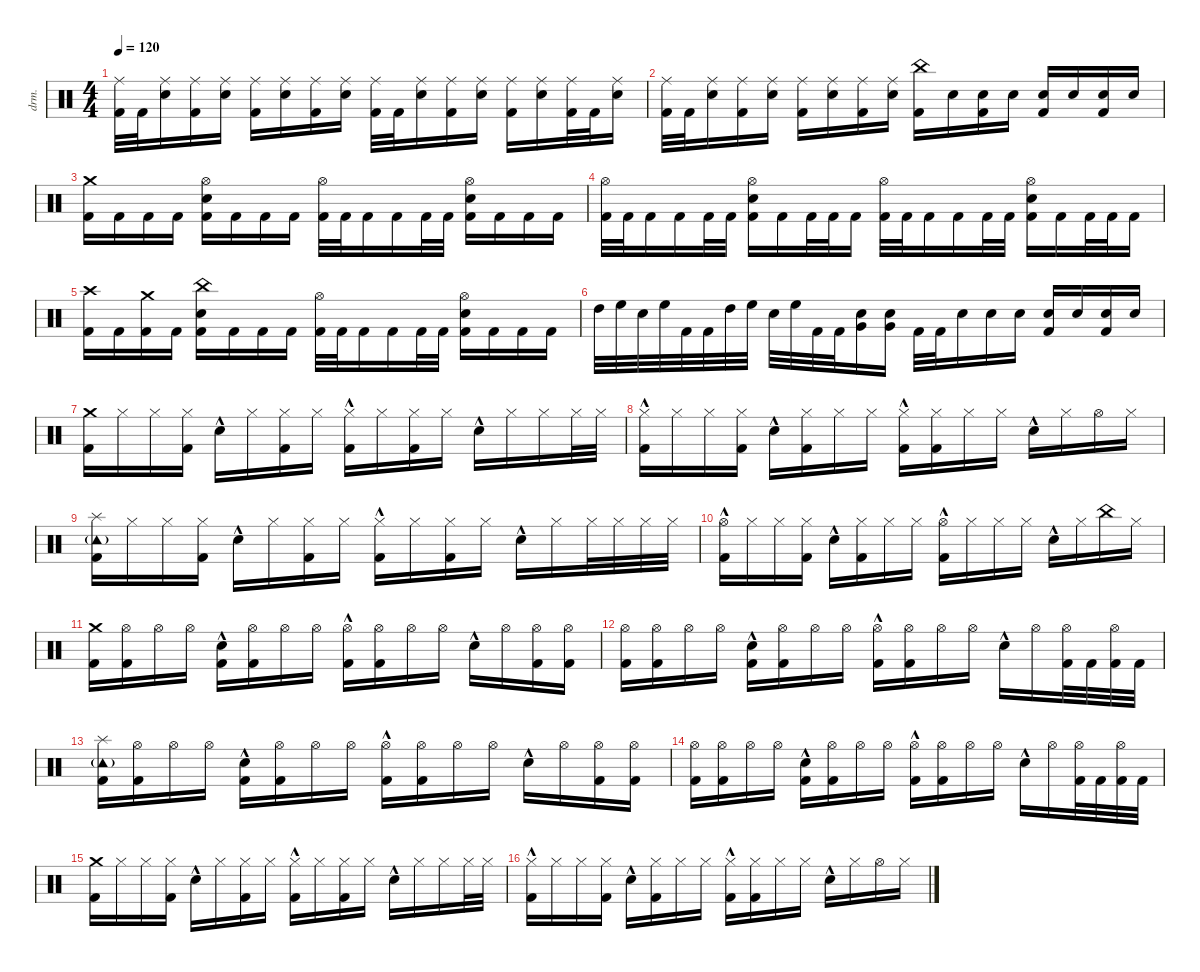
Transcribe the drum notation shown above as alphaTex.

\defaultSystemsLayout 4
\hideDynamics
\bracketExtendMode nobrackets
\otherSystemsTrackNameOrientation horizontal
\track ("Percussion" "drm.") {instrument percussion}
\staff {score}
\articulation defaults
\ts (4 4)
\tempo 120
\clef neutral
\ks c
("Kick (hit) 2" "Ride (middle)").32{dy fff beam Down} "Kick (hit) 2".32{beam Down} ("Snare (hit) 2" "Ride (middle)").16{beam Down} ("Kick (hit) 2" "Ride (middle)").16{beam Down} ("Snare (hit) 2" "Ride (middle)").16{beam Down} ("Kick (hit) 2" "Ride (middle)").16{beam Down} ("Snare (hit) 2" "Ride (middle)").16{beam Down} ("Kick (hit) 2" "Ride (middle)").16{beam Down} ("Snare (hit) 2" "Ride (middle)").16{beam Down} ("Kick (hit) 2" "Ride (middle)").32{beam Down} "Kick (hit) 2".32{beam Down} ("Snare (hit) 2" "Ride (middle)").16{beam Down} ("Kick (hit) 2" "Ride (middle)").16{beam Down} ("Snare (hit) 2" "Ride (middle)").16{beam Down} ("Kick (hit) 2" "Ride (middle)").16{beam Down} ("Snare (hit) 2" "Ride (middle)").16{beam Down} ("Kick (hit) 2" "Ride (middle)").32{beam Down} "Kick (hit) 2".32{beam Down} ("Snare (hit) 2" "Ride (middle)").16{beam Down} |
("Kick (hit) 2" "Ride (middle)").32{beam Down} "Kick (hit) 2".32{beam Down} ("Snare (hit) 2" "Ride (middle)").16{beam Down} ("Kick (hit) 2" "Ride (middle)").16{beam Down} ("Snare (hit) 2" "Ride (middle)").16{beam Down} ("Kick (hit) 2" "Ride (middle)").16{beam Down} ("Snare (hit) 2" "Ride (middle)").16{beam Down} ("Kick (hit) 2" "Ride (middle)").16{beam Down} ("Snare (hit) 2" "Ride (middle)").16{beam Down} ("Kick (hit) 2" "China (hit)").16{beam Down} "Snare (hit) 2".16{beam Down} ("Kick (hit) 2" "Snare (hit) 2").16{beam Down} "Snare (hit) 2".16{dy f beam Down} ("Kick (hit) 2" "Snare (hit) 2").16{dy fff beam Up} "Snare (hit) 2".16{dy ff beam Up} ("Kick (hit) 2" "Snare (hit) 2").16{dy fff beam Up} "Snare (hit) 2".16{beam Up} |
("Kick (hit) 2" "Crash medium (hit)").16{beam Down} "Kick (hit) 2".16{beam Down} "Kick (hit) 2".16{beam Down} "Kick (hit) 2".16{beam Down} ("Kick (hit) 2" "Snare (hit) 2" "Hi-Hat (open)").16{beam Down} "Kick (hit) 2".16{beam Down} "Kick (hit) 2".16{beam Down} "Kick (hit) 2".16{beam Down} ("Kick (hit) 2" "Hi-Hat (open)").32{beam Down} "Kick (hit) 2".32{beam Down} "Kick (hit) 2".16{beam Down} "Kick (hit) 2".16{beam Down} "Kick (hit) 2".32{beam Down} "Kick (hit) 2".32{beam Down} ("Kick (hit) 2" "Snare (hit) 2" "Hi-Hat (open)").16{beam Down} "Kick (hit) 2".16{beam Down} "Kick (hit) 2".16{beam Down} "Kick (hit) 2".16{beam Down} |
("Kick (hit) 2" "Hi-Hat (open)").32{beam Down} "Kick (hit) 2".32{beam Down} "Kick (hit) 2".16{beam Down} "Kick (hit) 2".16{beam Down} "Kick (hit) 2".32{beam Down} "Kick (hit) 2".32{beam Down} ("Kick (hit) 2" "Snare (hit) 2" "Hi-Hat (open)").16{beam Down} "Kick (hit) 2".16{beam Down} "Kick (hit) 2".32{beam Down} "Kick (hit) 2".32{beam Down} "Kick (hit) 2".16{beam Down} ("Kick (hit) 2" "Hi-Hat (open)").32{beam Down} "Kick (hit) 2".32{beam Down} "Kick (hit) 2".16{beam Down} "Kick (hit) 2".16{beam Down} "Kick (hit) 2".32{beam Down} "Kick (hit) 2".32{beam Down} ("Kick (hit) 2" "Snare (hit) 2" "Hi-Hat (open)").16{beam Down} "Kick (hit) 2".16{beam Down} "Kick (hit) 2".32{beam Down} "Kick (hit) 2".32{beam Down} "Kick (hit) 2".16{beam Down} |
("Kick (hit) 2" "Crash high (hit)").16{beam Down} "Kick (hit) 2".16{beam Down} ("Kick (hit) 2" "Crash medium (hit)").16{beam Down} "Kick (hit) 2".16{beam Down} ("Kick (hit) 2" "Snare (hit) 2" "China (hit)").16{beam Down} "Kick (hit) 2".16{beam Down} "Kick (hit) 2".16{beam Down} "Kick (hit) 2".16{beam Down} ("Kick (hit) 2" "Hi-Hat (open)").32{beam Down} "Kick (hit) 2".32{beam Down} "Kick (hit) 2".16{beam Down} "Kick (hit) 2".16{beam Down} "Kick (hit) 2".32{beam Down} "Kick (hit) 2".32{beam Down} ("Kick (hit) 2" "Snare (hit) 2" "Hi-Hat (open)").16{beam Down} "Kick (hit) 2".16{beam Down} "Kick (hit) 2".16{beam Down} "Kick (hit) 2".16{beam Down} |
"High Tom (hit)".32{beam Down} "High Floor Tom (hit)".32{beam Down} "Snare (hit) 2".32{beam Down} "High Floor Tom (hit)".32{beam Down} "Kick (hit) 2".32{beam Down} "Kick (hit) 2".32{beam Down} "High Tom (hit)".32{beam Down} "High Floor Tom (hit)".32{beam Down} "Snare (hit) 2".32{beam Down} "High Floor Tom (hit)".32{beam Down} "Kick (hit) 2".32{beam Down} "Kick (hit) 2".32{beam Down} ("Snare (hit) 2" "Very Low Tom (hit)").16{beam Down} ("Snare (hit) 2" "Very Low Tom (hit)").16{beam Down} "Kick (hit) 2".32{beam Down} "Kick (hit) 2".32{beam Down} "Snare (hit) 2".16{dy mf beam Down} "Snare (hit) 2".16{beam Down} "Snare (hit) 2".16{beam Down} ("Kick (hit) 2" "Snare (hit) 2").16{dy fff beam Up} "Snare (hit) 2".16{dy ff beam Up} ("Kick (hit) 2" "Snare (hit) 2").16{dy fff beam Up} "Snare (hit) 2".16{beam Up} |
("Kick (hit) 2" "Crash medium (hit)").16{beam Down} "Hi-Hat (closed)".16{dy f beam Down} "Hi-Hat (closed)".16{beam Down} ("Kick (hit) 2" "Hi-Hat (closed)").16{dy fff beam Down} "Snare (hit) 2"{hac}.16{dy f beam Down} "Hi-Hat (closed)".16{beam Down} ("Kick (hit) 2" "Hi-Hat (closed)").16{dy fff beam Down} "Hi-Hat (closed)".16{dy f beam Down} ("Kick (hit) 2" "Hi-Hat (closed)"{hac}).16{dy fff beam Down} "Hi-Hat (closed)".16{dy f beam Down} ("Kick (hit) 2" "Hi-Hat (closed)").16{dy fff beam Down} "Hi-Hat (closed)".16{dy f beam Down} "Snare (hit) 2"{hac}.16{beam Down} "Hi-Hat (closed)".16{beam Down} "Hi-Hat (closed)".16{beam Down} "Hi-Hat (closed)".32{beam Down} "Hi-Hat (closed)".32{beam Down} |
("Kick (hit) 2" "Hi-Hat (closed)"{hac}).16{dy fff beam Down} "Hi-Hat (closed)".16{dy f beam Down} "Hi-Hat (closed)".16{beam Down} ("Kick (hit) 2" "Hi-Hat (closed)").16{beam Down} "Snare (hit) 2"{hac}.16{beam Down} ("Kick (hit) 2" "Hi-Hat (closed)").16{beam Down} "Hi-Hat (closed)".16{beam Down} "Hi-Hat (closed)".16{beam Down} ("Kick (hit) 2" "Hi-Hat (closed)"{hac}).16{dy fff beam Down} ("Kick (hit) 2" "Hi-Hat (closed)").16{dy f beam Down} "Hi-Hat (closed)".16{beam Down} "Hi-Hat (closed)".16{beam Down} "Snare (hit) 2"{hac}.16{beam Down} "Hi-Hat (closed)".16{beam Down} "Hi-Hat (open)".16{dy fff beam Down} "Hi-Hat (closed)".16{dy f beam Down} |
("Kick (hit) 2" "Tambourine (hit)"{g} "Splash (hit)").16{dy fff beam Down} "Hi-Hat (closed)".16{dy f beam Down} "Hi-Hat (closed)".16{beam Down} ("Kick (hit) 2" "Hi-Hat (closed)").16{dy fff beam Down} "Snare (hit) 2"{hac}.16{dy f beam Down} "Hi-Hat (closed)".16{beam Down} ("Kick (hit) 2" "Hi-Hat (closed)").16{dy fff beam Down} "Hi-Hat (closed)".16{dy f beam Down} ("Kick (hit) 2" "Hi-Hat (closed)"{hac}).16{dy fff beam Down} "Hi-Hat (closed)".16{dy f beam Down} ("Kick (hit) 2" "Hi-Hat (closed)").16{dy fff beam Down} "Hi-Hat (closed)".16{dy f beam Down} "Snare (hit) 2"{hac}.16{beam Down} "Hi-Hat (closed)".16{beam Down} "Hi-Hat (closed)".32{beam Down} "Hi-Hat (closed)".32{beam Down} "Hi-Hat (closed)".32{beam Down} "Hi-Hat (closed)".32{beam Down} |
("Kick (hit) 2" "Hi-Hat (open)"{hac}).16{dy fff beam Down} "Hi-Hat (closed)".16{dy f beam Down} "Hi-Hat (closed)".16{beam Down} ("Kick (hit) 2" "Hi-Hat (closed)").16{beam Down} "Snare (hit) 2"{hac}.16{beam Down} ("Kick (hit) 2" "Hi-Hat (closed)").16{beam Down} "Hi-Hat (closed)".16{beam Down} "Hi-Hat (closed)".16{beam Down} ("Kick (hit) 2" "Hi-Hat (open)"{hac}).16{dy fff beam Down} "Hi-Hat (closed)".16{dy f beam Down} "Hi-Hat (closed)".16{beam Down} "Hi-Hat (closed)".16{beam Down} "Snare (hit) 2"{hac}.16{beam Down} "Hi-Hat (closed)".16{beam Down} "China (hit)".16{beam Down} "Hi-Hat (closed)".16{beam Down} |
("Kick (hit) 2" "Crash medium (hit)").16{dy fff beam Down} ("Kick (hit) 2" "Hi-Hat (open)").16{beam Down} "Hi-Hat (open)".16{dy f beam Down} "Hi-Hat (open)".16{beam Down} ("Kick (hit) 2" "Snare (hit) 2"{hac}).16{dy fff beam Down} ("Kick (hit) 2" "Hi-Hat (open)").16{beam Down} "Hi-Hat (open)".16{dy f beam Down} "Hi-Hat (open)".16{beam Down} ("Kick (hit) 2" "Hi-Hat (open)"{hac}).16{dy fff beam Down} ("Kick (hit) 2" "Hi-Hat (open)").16{beam Down} "Hi-Hat (open)".16{dy f beam Down} "Hi-Hat (open)".16{beam Down} "Snare (hit) 2"{hac}.16{beam Down} "Hi-Hat (open)".16{beam Down} ("Kick (hit) 2" "Hi-Hat (open)").16{dy fff beam Down} ("Kick (hit) 2" "Hi-Hat (open)").16{beam Down} |
("Kick (hit) 2" "Hi-Hat (open)").16{beam Down} ("Kick (hit) 2" "Hi-Hat (open)").16{beam Down} "Hi-Hat (open)".16{dy f beam Down} "Hi-Hat (open)".16{beam Down} ("Kick (hit) 2" "Snare (hit) 2"{hac}).16{dy fff beam Down} ("Kick (hit) 2" "Hi-Hat (open)").16{beam Down} "Hi-Hat (open)".16{dy f beam Down} "Hi-Hat (open)".16{beam Down} ("Kick (hit) 2" "Hi-Hat (open)"{hac}).16{dy fff beam Down} ("Kick (hit) 2" "Hi-Hat (open)").16{beam Down} "Hi-Hat (open)".16{dy f beam Down} "Hi-Hat (open)".16{beam Down} "Snare (hit) 2"{hac}.16{beam Down} "Hi-Hat (open)".16{beam Down} ("Kick (hit) 2" "Hi-Hat (open)").32{dy fff beam Down} "Kick (hit) 2".32{beam Down} ("Kick (hit) 2" "Hi-Hat (open)").32{beam Down} "Kick (hit) 2".32{beam Down} |
("Kick (hit) 2" "Tambourine (hit)"{g} "Splash (hit)").16{beam Down} ("Kick (hit) 2" "Hi-Hat (open)").16{beam Down} "Hi-Hat (open)".16{dy f beam Down} "Hi-Hat (open)".16{beam Down} ("Kick (hit) 2" "Snare (hit) 2"{hac}).16{dy fff beam Down} ("Kick (hit) 2" "Hi-Hat (open)").16{beam Down} "Hi-Hat (open)".16{dy f beam Down} "Hi-Hat (open)".16{beam Down} ("Kick (hit) 2" "Hi-Hat (open)"{hac}).16{dy fff beam Down} ("Kick (hit) 2" "Hi-Hat (open)").16{beam Down} "Hi-Hat (open)".16{dy f beam Down} "Hi-Hat (open)".16{beam Down} "Snare (hit) 2"{hac}.16{beam Down} "Hi-Hat (open)".16{beam Down} ("Kick (hit) 2" "Hi-Hat (open)").16{dy fff beam Down} ("Kick (hit) 2" "Hi-Hat (open)").16{beam Down} |
("Kick (hit) 2" "Hi-Hat (open)").16{beam Down} ("Kick (hit) 2" "Hi-Hat (open)").16{beam Down} "Hi-Hat (open)".16{dy f beam Down} "Hi-Hat (open)".16{beam Down} ("Kick (hit) 2" "Snare (hit) 2"{hac}).16{dy fff beam Down} ("Kick (hit) 2" "Hi-Hat (open)").16{beam Down} "Hi-Hat (open)".16{dy f beam Down} "Hi-Hat (open)".16{beam Down} ("Kick (hit) 2" "Hi-Hat (open)"{hac}).16{dy fff beam Down} ("Kick (hit) 2" "Hi-Hat (open)").16{beam Down} "Hi-Hat (open)".16{dy f beam Down} "Hi-Hat (open)".16{beam Down} "Snare (hit) 2"{hac}.16{beam Down} "Hi-Hat (open)".16{beam Down} ("Kick (hit) 2" "Hi-Hat (open)").32{dy fff beam Down} "Kick (hit) 2".32{beam Down} ("Kick (hit) 2" "Hi-Hat (open)").32{beam Down} "Kick (hit) 2".32{beam Down} |
("Kick (hit) 2" "Crash medium (hit)").16{beam Down} "Hi-Hat (closed)".16{dy f beam Down} "Hi-Hat (closed)".16{beam Down} ("Kick (hit) 2" "Hi-Hat (closed)").16{dy fff beam Down} "Snare (hit) 2"{hac}.16{dy f beam Down} "Hi-Hat (closed)".16{beam Down} ("Kick (hit) 2" "Hi-Hat (closed)").16{dy fff beam Down} "Hi-Hat (closed)".16{dy f beam Down} ("Kick (hit) 2" "Hi-Hat (closed)"{hac}).16{dy fff beam Down} "Hi-Hat (closed)".16{dy f beam Down} ("Kick (hit) 2" "Hi-Hat (closed)").16{dy fff beam Down} "Hi-Hat (closed)".16{dy f beam Down} "Snare (hit) 2"{hac}.16{beam Down} "Hi-Hat (closed)".16{beam Down} "Hi-Hat (closed)".16{beam Down} "Hi-Hat (closed)".32{beam Down} "Hi-Hat (closed)".32{beam Down} |
("Kick (hit) 2" "Hi-Hat (closed)"{hac}).16{dy fff beam Down} "Hi-Hat (closed)".16{dy f beam Down} "Hi-Hat (closed)".16{beam Down} ("Kick (hit) 2" "Hi-Hat (closed)").16{beam Down} "Snare (hit) 2"{hac}.16{beam Down} ("Kick (hit) 2" "Hi-Hat (closed)").16{beam Down} "Hi-Hat (closed)".16{beam Down} "Hi-Hat (closed)".16{beam Down} ("Kick (hit) 2" "Hi-Hat (closed)"{hac}).16{dy fff beam Down} ("Kick (hit) 2" "Hi-Hat (closed)").16{dy f beam Down} "Hi-Hat (closed)".16{beam Down} "Hi-Hat (closed)".16{beam Down} "Snare (hit) 2"{hac}.16{beam Down} "Hi-Hat (closed)".16{beam Down} "Hi-Hat (open)".16{dy fff beam Down} "Hi-Hat (closed)".16{dy f beam Down}
